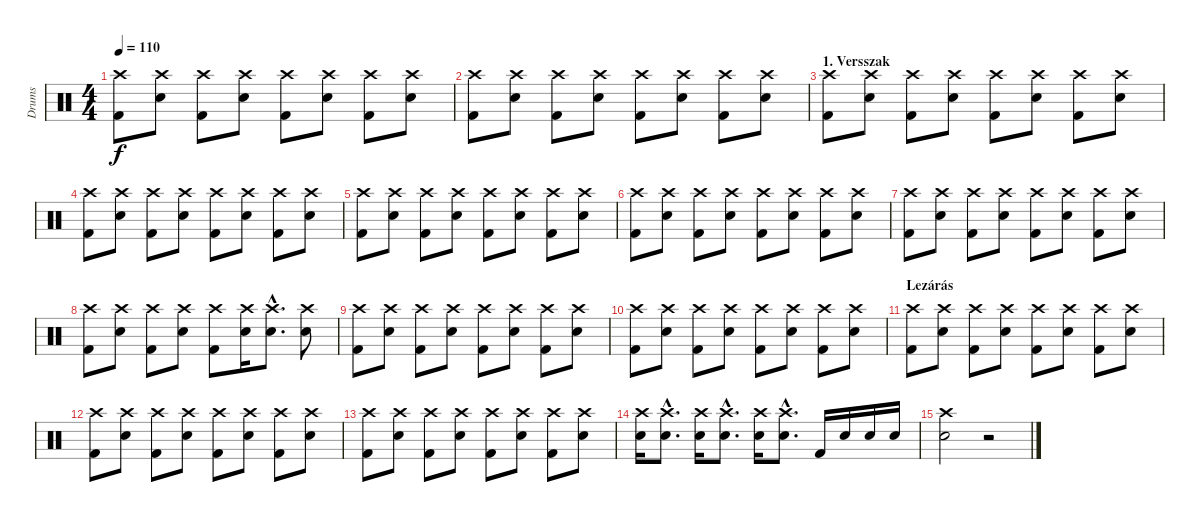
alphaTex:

\track ("Drums" "Drums") {instrument percussion}
\staff {score}
\articulation defaults
\ts (4 4)
\tempo 110
\clef neutral
\ks c
("Crash high (hit)" "Kick (hit) 2").8{dy f} ("Crash high (hit)" "Snare (hit) 2").8 ("Crash high (hit)" "Kick (hit) 2").8 ("Crash high (hit)" "Snare (hit) 2").8 ("Crash high (hit)" "Kick (hit) 2").8 ("Crash high (hit)" "Snare (hit) 2").8 ("Crash high (hit)" "Kick (hit) 2").8 ("Crash high (hit)" "Snare (hit) 2").8 |
("Crash high (hit)" "Kick (hit) 2").8 ("Crash high (hit)" "Snare (hit) 2").8 ("Crash high (hit)" "Kick (hit) 2").8 ("Crash high (hit)" "Snare (hit) 2").8 ("Crash high (hit)" "Kick (hit) 2").8 ("Crash high (hit)" "Snare (hit) 2").8 ("Crash high (hit)" "Kick (hit) 2").8 ("Crash high (hit)" "Snare (hit) 2").8 |
\section ("" "1. Versszak")
("Crash high (hit)" "Kick (hit) 2").8 ("Crash high (hit)" "Snare (hit) 2").8 ("Crash high (hit)" "Kick (hit) 2").8 ("Crash high (hit)" "Snare (hit) 2").8 ("Crash high (hit)" "Kick (hit) 2").8 ("Crash high (hit)" "Snare (hit) 2").8 ("Crash high (hit)" "Kick (hit) 2").8 ("Crash high (hit)" "Snare (hit) 2").8 |
("Crash high (hit)" "Kick (hit) 2").8 ("Crash high (hit)" "Snare (hit) 2").8 ("Crash high (hit)" "Kick (hit) 2").8 ("Crash high (hit)" "Snare (hit) 2").8 ("Crash high (hit)" "Kick (hit) 2").8 ("Crash high (hit)" "Snare (hit) 2").8 ("Crash high (hit)" "Kick (hit) 2").8 ("Crash high (hit)" "Snare (hit) 2").8 |
("Crash high (hit)" "Kick (hit) 2").8 ("Crash high (hit)" "Snare (hit) 2").8 ("Crash high (hit)" "Kick (hit) 2").8 ("Crash high (hit)" "Snare (hit) 2").8 ("Crash high (hit)" "Kick (hit) 2").8 ("Crash high (hit)" "Snare (hit) 2").8 ("Crash high (hit)" "Kick (hit) 2").8 ("Crash high (hit)" "Snare (hit) 2").8 |
("Crash high (hit)" "Kick (hit) 2").8 ("Crash high (hit)" "Snare (hit) 2").8 ("Crash high (hit)" "Kick (hit) 2").8 ("Crash high (hit)" "Snare (hit) 2").8 ("Crash high (hit)" "Kick (hit) 2").8 ("Crash high (hit)" "Snare (hit) 2").8 ("Crash high (hit)" "Kick (hit) 2").8 ("Crash high (hit)" "Snare (hit) 2").8 |
("Crash high (hit)" "Kick (hit) 2").8 ("Crash high (hit)" "Snare (hit) 2").8 ("Crash high (hit)" "Kick (hit) 2").8 ("Crash high (hit)" "Snare (hit) 2").8 ("Crash high (hit)" "Kick (hit) 2").8 ("Crash high (hit)" "Snare (hit) 2").8 ("Crash high (hit)" "Kick (hit) 2").8 ("Crash high (hit)" "Snare (hit) 2").8 |
("Crash high (hit)" "Kick (hit) 2").8 ("Crash high (hit)" "Snare (hit) 2").8 ("Crash high (hit)" "Kick (hit) 2").8 ("Crash high (hit)" "Snare (hit) 2").8 ("Crash high (hit)" "Kick (hit) 2").8 ("Crash high (hit)" "Snare (hit) 2").16 ("Crash high (hit)"{hac} "Snare (hit) 2"{hac}).8{d} ("Crash high (hit)" "Snare (hit) 2").8 |
("Crash high (hit)" "Kick (hit) 2").8 ("Crash high (hit)" "Snare (hit) 2").8 ("Crash high (hit)" "Kick (hit) 2").8 ("Crash high (hit)" "Snare (hit) 2").8 ("Crash high (hit)" "Kick (hit) 2").8 ("Crash high (hit)" "Snare (hit) 2").8 ("Crash high (hit)" "Kick (hit) 2").8 ("Crash high (hit)" "Snare (hit) 2").8 |
("Crash high (hit)" "Kick (hit) 2").8 ("Crash high (hit)" "Snare (hit) 2").8 ("Crash high (hit)" "Kick (hit) 2").8 ("Crash high (hit)" "Snare (hit) 2").8 ("Crash high (hit)" "Kick (hit) 2").8 ("Crash high (hit)" "Snare (hit) 2").8 ("Crash high (hit)" "Kick (hit) 2").8 ("Crash high (hit)" "Snare (hit) 2").8 |
\section ("" "Lezárás")
("Crash high (hit)" "Kick (hit) 2").8 ("Crash high (hit)" "Snare (hit) 2").8 ("Crash high (hit)" "Kick (hit) 2").8 ("Crash high (hit)" "Snare (hit) 2").8 ("Crash high (hit)" "Kick (hit) 2").8 ("Crash high (hit)" "Snare (hit) 2").8 ("Crash high (hit)" "Kick (hit) 2").8 ("Crash high (hit)" "Snare (hit) 2").8 |
("Crash high (hit)" "Kick (hit) 2").8 ("Crash high (hit)" "Snare (hit) 2").8 ("Crash high (hit)" "Kick (hit) 2").8 ("Crash high (hit)" "Snare (hit) 2").8 ("Crash high (hit)" "Kick (hit) 2").8 ("Crash high (hit)" "Snare (hit) 2").8 ("Crash high (hit)" "Kick (hit) 2").8 ("Crash high (hit)" "Snare (hit) 2").8 |
("Crash high (hit)" "Kick (hit) 2").8 ("Crash high (hit)" "Snare (hit) 2").8 ("Crash high (hit)" "Kick (hit) 2").8 ("Crash high (hit)" "Snare (hit) 2").8 ("Crash high (hit)" "Kick (hit) 2").8 ("Crash high (hit)" "Snare (hit) 2").8 ("Crash high (hit)" "Kick (hit) 2").8 ("Crash high (hit)" "Snare (hit) 2").8 |
("Crash high (hit)" "Snare (hit) 2").16 ("Crash high (hit)"{hac} "Snare (hit) 2"{hac}).8{d} ("Crash high (hit)" "Snare (hit) 2").16 ("Crash high (hit)"{hac} "Snare (hit) 2"{hac}).8{d} ("Crash high (hit)" "Snare (hit) 2").16 ("Crash high (hit)"{hac} "Snare (hit) 2"{hac}).8{d} "Kick (hit) 2".16 "Snare (hit) 2".16 "Snare (hit) 2".16 "Snare (hit) 2".16 |
("Crash high (hit)" "Snare (hit) 2").2 r.2
